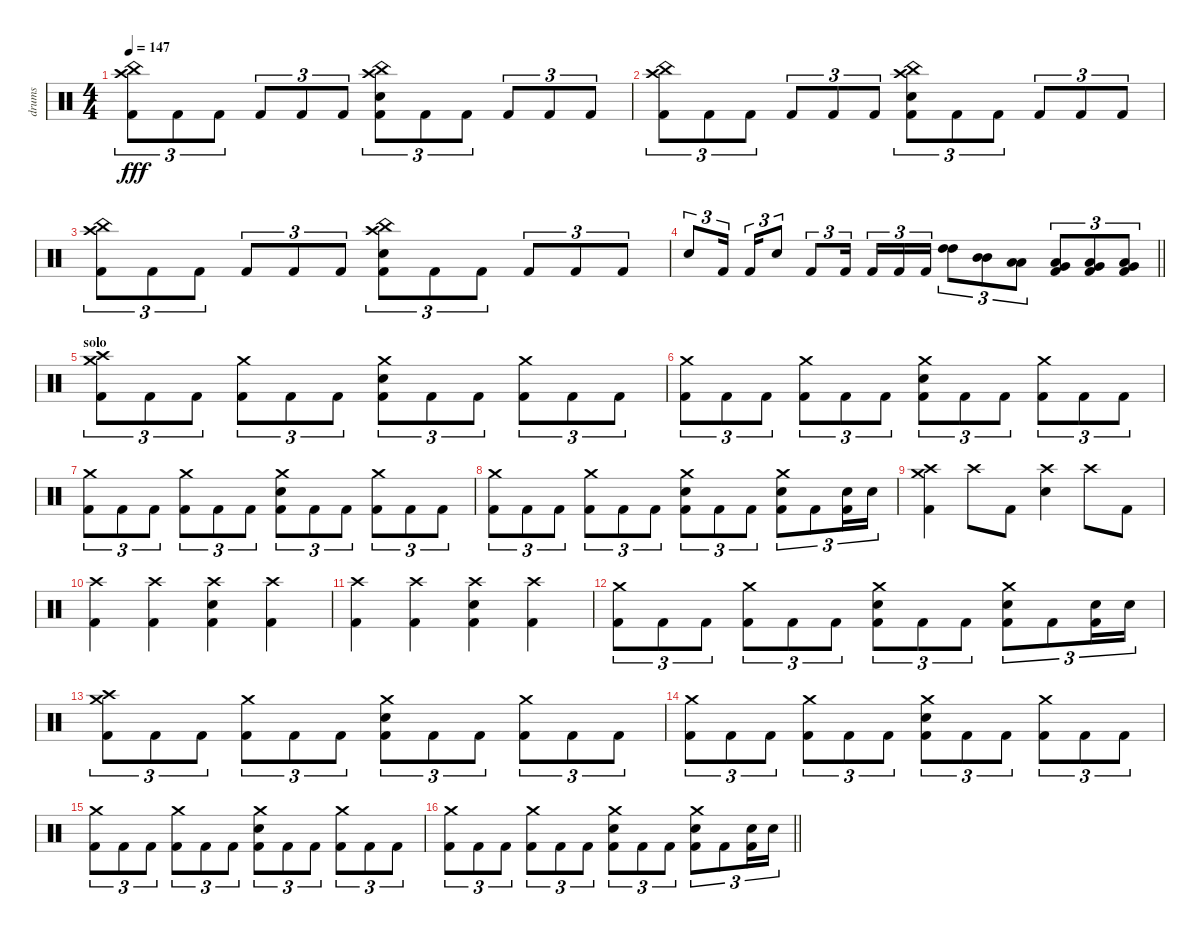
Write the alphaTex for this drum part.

\track ("drums" "drums") {instrument percussion}
\staff {score}
\articulation defaults
\ts (4 4)
\section ("" "")
\tempo 147
\clef neutral
\ks c
("China (hit)" "Crash high (hit)" "Kick (hit) 2").8{tu (3 2) dy fff} "Kick (hit) 2".8{tu (3 2)} "Kick (hit) 2".8{tu (3 2)} "Kick (hit) 2".8{tu (3 2)} "Kick (hit) 2".8{tu (3 2)} "Kick (hit) 2".8{tu (3 2)} ("China (hit)" "Crash high (hit)" "Electric Snare (hit)" "Kick (hit) 2").8{tu (3 2)} "Kick (hit) 2".8{tu (3 2)} "Kick (hit) 2".8{tu (3 2)} "Kick (hit) 2".8{tu (3 2)} "Kick (hit) 2".8{tu (3 2)} "Kick (hit) 2".8{tu (3 2)} |
("China (hit)" "Crash high (hit)" "Kick (hit) 2").8{tu (3 2)} "Kick (hit) 2".8{tu (3 2)} "Kick (hit) 2".8{tu (3 2)} "Kick (hit) 2".8{tu (3 2)} "Kick (hit) 2".8{tu (3 2)} "Kick (hit) 2".8{tu (3 2)} ("China (hit)" "Crash high (hit)" "Electric Snare (hit)" "Kick (hit) 2").8{tu (3 2)} "Kick (hit) 2".8{tu (3 2)} "Kick (hit) 2".8{tu (3 2)} "Kick (hit) 2".8{tu (3 2)} "Kick (hit) 2".8{tu (3 2)} "Kick (hit) 2".8{tu (3 2)} |
("China (hit)" "Crash high (hit)" "Kick (hit) 2").8{tu (3 2)} "Kick (hit) 2".8{tu (3 2)} "Kick (hit) 2".8{tu (3 2)} "Kick (hit) 2".8{tu (3 2)} "Kick (hit) 2".8{tu (3 2)} "Kick (hit) 2".8{tu (3 2)} ("China (hit)" "Crash high (hit)" "Electric Snare (hit)" "Kick (hit) 2").8{tu (3 2)} "Kick (hit) 2".8{tu (3 2)} "Kick (hit) 2".8{tu (3 2)} "Kick (hit) 2".8{tu (3 2)} "Kick (hit) 2".8{tu (3 2)} "Kick (hit) 2".8{tu (3 2)} |
\barLineRight lightlight "Electric Snare (hit)".8{tu (3 2)} "Kick (hit) 2".16{tu (3 2) beam splitsecondary} "Kick (hit) 2".16{tu (3 2)} "Electric Snare (hit)".8{tu (3 2)} "Kick (hit) 2".8{tu (3 2)} "Kick (hit) 2".16{tu (3 2) beam splitsecondary} "Kick (hit) 2".16{tu (3 2)} "Kick (hit) 2".16{tu (3 2)} "Kick (hit) 2".16{tu (3 2)}
("High Tom (hit)" "High Tom (hit)").8{tu (3 2)} ("Mid Tom (hit)" "Mid Tom (hit)").8{tu (3 2)} ("Low Tom (hit)" "Low Tom (hit)").8{tu (3 2)} ("Very Low Tom (hit)" "Low Floor Tom (hit)" "Kick (hit) 2").8{tu (3 2)} ("Very Low Tom (hit)" "Low Floor Tom (hit)" "Kick (hit) 2").8{tu (3 2)} ("Very Low Tom (hit)" "Low Floor Tom (hit)" "Kick (hit) 2").8{tu (3 2)} |
\section ("" "solo")
("Crash high (hit)" "Crash medium (hit)" "Kick (hit) 2").8{tu (3 2)} "Kick (hit) 2".8{tu (3 2)} "Kick (hit) 2".8{tu (3 2)} ("Crash medium (hit)" "Kick (hit) 2").8{tu (3 2)} "Kick (hit) 2".8{tu (3 2)} "Kick (hit) 2".8{tu (3 2)} ("Crash medium (hit)" "Electric Snare (hit)" "Kick (hit) 2").8{tu (3 2)} "Kick (hit) 2".8{tu (3 2)} "Kick (hit) 2".8{tu (3 2)} ("Crash medium (hit)" "Kick (hit) 2").8{tu (3 2)} "Kick (hit) 2".8{tu (3 2)} "Kick (hit) 2".8{tu (3 2)} |
("Crash medium (hit)" "Kick (hit) 2").8{tu (3 2)} "Kick (hit) 2".8{tu (3 2)} "Kick (hit) 2".8{tu (3 2)} ("Crash medium (hit)" "Kick (hit) 2").8{tu (3 2)} "Kick (hit) 2".8{tu (3 2)} "Kick (hit) 2".8{tu (3 2)} ("Crash medium (hit)" "Electric Snare (hit)" "Kick (hit) 2").8{tu (3 2)} "Kick (hit) 2".8{tu (3 2)} "Kick (hit) 2".8{tu (3 2)} ("Crash medium (hit)" "Kick (hit) 2").8{tu (3 2)} "Kick (hit) 2".8{tu (3 2)} "Kick (hit) 2".8{tu (3 2)} |
("Crash medium (hit)" "Kick (hit) 2").8{tu (3 2)} "Kick (hit) 2".8{tu (3 2)} "Kick (hit) 2".8{tu (3 2)} ("Crash medium (hit)" "Kick (hit) 2").8{tu (3 2)} "Kick (hit) 2".8{tu (3 2)} "Kick (hit) 2".8{tu (3 2)} ("Crash medium (hit)" "Electric Snare (hit)" "Kick (hit) 2").8{tu (3 2)} "Kick (hit) 2".8{tu (3 2)} "Kick (hit) 2".8{tu (3 2)} ("Crash medium (hit)" "Kick (hit) 2").8{tu (3 2)} "Kick (hit) 2".8{tu (3 2)} "Kick (hit) 2".8{tu (3 2)} |
("Crash medium (hit)" "Kick (hit) 2").8{tu (3 2)} "Kick (hit) 2".8{tu (3 2)} "Kick (hit) 2".8{tu (3 2)} ("Crash medium (hit)" "Kick (hit) 2").8{tu (3 2)} "Kick (hit) 2".8{tu (3 2)} "Kick (hit) 2".8{tu (3 2)} ("Crash medium (hit)" "Electric Snare (hit)" "Kick (hit) 2").8{tu (3 2)} "Kick (hit) 2".8{tu (3 2)} "Kick (hit) 2".8{tu (3 2)} ("Crash medium (hit)" "Electric Snare (hit)" "Kick (hit) 2").8{tu (3 2)} "Kick (hit) 2".8{tu (3 2)} ("Electric Snare (hit)" "Kick (hit) 2").16{tu (3 2)} "Electric Snare (hit)".16{tu (3 2)} |
("Crash high (hit)" "Crash medium (hit)" "Kick (hit) 2").4 "Crash high (hit)".8 "Kick (hit) 2".8 ("Crash high (hit)" "Electric Snare (hit)").4 "Crash high (hit)".8 "Kick (hit) 2".8 |
("Crash high (hit)" "Kick (hit) 2").4 ("Crash high (hit)" "Kick (hit) 2").4 ("Crash high (hit)" "Electric Snare (hit)" "Kick (hit) 2").4 ("Crash high (hit)" "Kick (hit) 2").4 |
("Crash high (hit)" "Kick (hit) 2").4 ("Crash high (hit)" "Kick (hit) 2").4 ("Crash high (hit)" "Electric Snare (hit)" "Kick (hit) 2").4 ("Crash high (hit)" "Kick (hit) 2").4 |
("Crash medium (hit)" "Kick (hit) 2").8{tu (3 2)} "Kick (hit) 2".8{tu (3 2)} "Kick (hit) 2".8{tu (3 2)} ("Crash medium (hit)" "Kick (hit) 2").8{tu (3 2)} "Kick (hit) 2".8{tu (3 2)} "Kick (hit) 2".8{tu (3 2)} ("Crash medium (hit)" "Electric Snare (hit)" "Kick (hit) 2").8{tu (3 2)} "Kick (hit) 2".8{tu (3 2)} "Kick (hit) 2".8{tu (3 2)} ("Crash medium (hit)" "Electric Snare (hit)" "Kick (hit) 2").8{tu (3 2)} "Kick (hit) 2".8{tu (3 2)} ("Electric Snare (hit)" "Kick (hit) 2").16{tu (3 2)} "Electric Snare (hit)".16{tu (3 2)} |
("Crash high (hit)" "Crash medium (hit)" "Kick (hit) 2").8{tu (3 2)} "Kick (hit) 2".8{tu (3 2)} "Kick (hit) 2".8{tu (3 2)} ("Crash medium (hit)" "Kick (hit) 2").8{tu (3 2)} "Kick (hit) 2".8{tu (3 2)} "Kick (hit) 2".8{tu (3 2)} ("Crash medium (hit)" "Electric Snare (hit)" "Kick (hit) 2").8{tu (3 2)} "Kick (hit) 2".8{tu (3 2)} "Kick (hit) 2".8{tu (3 2)} ("Crash medium (hit)" "Kick (hit) 2").8{tu (3 2)} "Kick (hit) 2".8{tu (3 2)} "Kick (hit) 2".8{tu (3 2)} |
("Crash medium (hit)" "Kick (hit) 2").8{tu (3 2)} "Kick (hit) 2".8{tu (3 2)} "Kick (hit) 2".8{tu (3 2)} ("Crash medium (hit)" "Kick (hit) 2").8{tu (3 2)} "Kick (hit) 2".8{tu (3 2)} "Kick (hit) 2".8{tu (3 2)} ("Crash medium (hit)" "Electric Snare (hit)" "Kick (hit) 2").8{tu (3 2)} "Kick (hit) 2".8{tu (3 2)} "Kick (hit) 2".8{tu (3 2)} ("Crash medium (hit)" "Kick (hit) 2").8{tu (3 2)} "Kick (hit) 2".8{tu (3 2)} "Kick (hit) 2".8{tu (3 2)} |
("Crash medium (hit)" "Kick (hit) 2").8{tu (3 2)} "Kick (hit) 2".8{tu (3 2)} "Kick (hit) 2".8{tu (3 2)} ("Crash medium (hit)" "Kick (hit) 2").8{tu (3 2)} "Kick (hit) 2".8{tu (3 2)} "Kick (hit) 2".8{tu (3 2)} ("Crash medium (hit)" "Electric Snare (hit)" "Kick (hit) 2").8{tu (3 2)} "Kick (hit) 2".8{tu (3 2)} "Kick (hit) 2".8{tu (3 2)} ("Crash medium (hit)" "Kick (hit) 2").8{tu (3 2)} "Kick (hit) 2".8{tu (3 2)} "Kick (hit) 2".8{tu (3 2)} |
\barLineRight lightlight
("Crash medium (hit)" "Kick (hit) 2").8{tu (3 2)} "Kick (hit) 2".8{tu (3 2)} "Kick (hit) 2".8{tu (3 2)} ("Crash medium (hit)" "Kick (hit) 2").8{tu (3 2)} "Kick (hit) 2".8{tu (3 2)} "Kick (hit) 2".8{tu (3 2)} ("Crash medium (hit)" "Electric Snare (hit)" "Kick (hit) 2").8{tu (3 2)} "Kick (hit) 2".8{tu (3 2)} "Kick (hit) 2".8{tu (3 2)} ("Crash medium (hit)" "Electric Snare (hit)" "Kick (hit) 2").8{tu (3 2)} "Kick (hit) 2".8{tu (3 2)} ("Electric Snare (hit)" "Kick (hit) 2").16{tu (3 2)} "Electric Snare (hit)".16{tu (3 2)}
